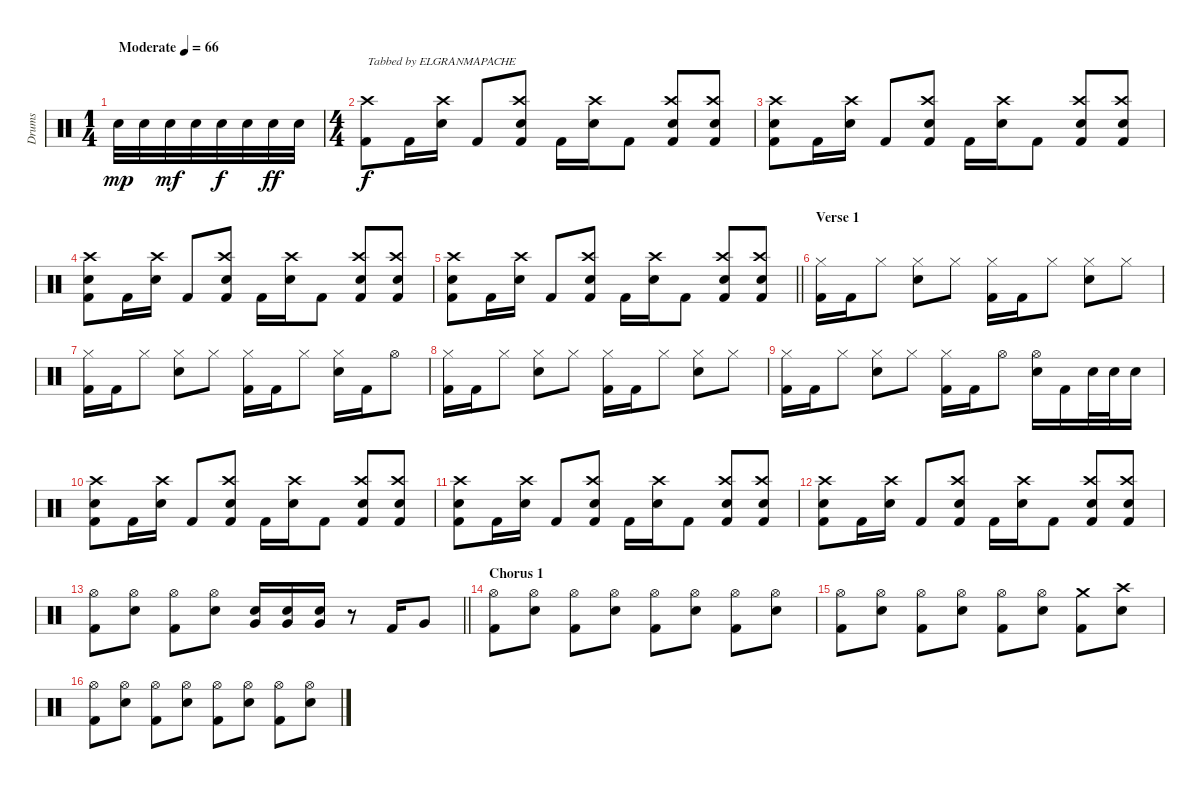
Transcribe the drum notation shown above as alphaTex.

\track ("Drums" "Drums") {instrument percussion}
\staff {score}
\articulation defaults
\ts (1 4)
\tempo (66 "Moderate")
\clef neutral
\ks c "Electric Snare (hit)".32{dy mp} "Electric Snare (hit)".32 "Electric Snare (hit)".32{dy mf} "Electric Snare (hit)".32 "Electric Snare (hit)".32{dy f} "Electric Snare (hit)".32 "Electric Snare (hit)".32{dy ff} "Electric Snare (hit)".32
|
\ts (4 4)
("Crash high (hit)" "Kick (hit) 2").8{txt "Tabbed by ELGRANMAPACHE" dy f} "Kick (hit) 2".16 ("Crash high (hit)" "Electric Snare (hit)").16 "Kick (hit) 2".8 ("Crash high (hit)" "Electric Snare (hit)" "Kick (hit) 2").8 "Kick (hit) 2".16 ("Crash high (hit)" "Electric Snare (hit)").16 "Kick (hit) 2".8 ("Crash high (hit)" "Electric Snare (hit)" "Kick (hit) 2").8 ("Crash high (hit)" "Electric Snare (hit)" "Kick (hit) 2").8 |
("Crash high (hit)" "Electric Snare (hit)" "Kick (hit) 2").8 "Kick (hit) 2".16 ("Crash high (hit)" "Electric Snare (hit)").16 "Kick (hit) 2".8 ("Crash high (hit)" "Electric Snare (hit)" "Kick (hit) 2").8 "Kick (hit) 2".16 ("Crash high (hit)" "Electric Snare (hit)").16 "Kick (hit) 2".8 ("Crash high (hit)" "Electric Snare (hit)" "Kick (hit) 2").8 ("Crash high (hit)" "Electric Snare (hit)" "Kick (hit) 2").8 |
("Crash high (hit)" "Electric Snare (hit)" "Kick (hit) 2").8 "Kick (hit) 2".16 ("Crash high (hit)" "Electric Snare (hit)").16 "Kick (hit) 2".8 ("Crash high (hit)" "Electric Snare (hit)" "Kick (hit) 2").8 "Kick (hit) 2".16 ("Crash high (hit)" "Electric Snare (hit)").16 "Kick (hit) 2".8 ("Crash high (hit)" "Electric Snare (hit)" "Kick (hit) 2").8 ("Crash high (hit)" "Electric Snare (hit)" "Kick (hit) 2").8 |
\barLineRight lightlight
("Crash high (hit)" "Electric Snare (hit)" "Kick (hit) 2").8 "Kick (hit) 2".16 ("Crash high (hit)" "Electric Snare (hit)").16 "Kick (hit) 2".8 ("Crash high (hit)" "Electric Snare (hit)" "Kick (hit) 2").8 "Kick (hit) 2".16 ("Crash high (hit)" "Electric Snare (hit)").16 "Kick (hit) 2".8 ("Crash high (hit)" "Electric Snare (hit)" "Kick (hit) 2").8 ("Crash high (hit)" "Electric Snare (hit)" "Kick (hit) 2").8 |
\section ("" "Verse 1")
("Hi-Hat (closed)" "Kick (hit) 2").16 "Kick (hit) 2".16 "Hi-Hat (closed)".8 ("Hi-Hat (closed)" "Electric Snare (hit)").8 "Hi-Hat (closed)".8 ("Hi-Hat (closed)" "Kick (hit) 2").16 "Kick (hit) 2".16 "Hi-Hat (closed)".8 ("Hi-Hat (closed)" "Electric Snare (hit)").8 "Hi-Hat (closed)".8 |
("Hi-Hat (closed)" "Kick (hit) 2").16 "Kick (hit) 2".16 "Hi-Hat (closed)".8 ("Hi-Hat (closed)" "Electric Snare (hit)").8 "Hi-Hat (closed)".8 ("Hi-Hat (closed)" "Kick (hit) 2").16 "Kick (hit) 2".16 "Hi-Hat (closed)".8 ("Hi-Hat (closed)" "Electric Snare (hit)").16 "Kick (hit) 2".16 "Hi-Hat (open)".8 |
("Hi-Hat (closed)" "Kick (hit) 2").16 "Kick (hit) 2".16 "Hi-Hat (closed)".8 ("Hi-Hat (closed)" "Electric Snare (hit)").8 "Hi-Hat (closed)".8 ("Hi-Hat (closed)" "Kick (hit) 2").16 "Kick (hit) 2".16 "Hi-Hat (closed)".8 ("Hi-Hat (closed)" "Electric Snare (hit)").8 "Hi-Hat (closed)".8 |
("Hi-Hat (closed)" "Kick (hit) 2").16 "Kick (hit) 2".16 "Hi-Hat (closed)".8 ("Hi-Hat (closed)" "Electric Snare (hit)").8 "Hi-Hat (closed)".8 ("Hi-Hat (closed)" "Kick (hit) 2").16 "Kick (hit) 2".16 "Hi-Hat (open)".8 ("Hi-Hat (open)" "Electric Snare (hit)").16 "Kick (hit) 2".16 "Electric Snare (hit)".32 "Electric Snare (hit)".32 "Electric Snare (hit)".16 |
("Crash high (hit)" "Electric Snare (hit)" "Kick (hit) 2").8 "Kick (hit) 2".16 ("Crash high (hit)" "Electric Snare (hit)").16 "Kick (hit) 2".8 ("Crash high (hit)" "Electric Snare (hit)" "Kick (hit) 2").8 "Kick (hit) 2".16 ("Crash high (hit)" "Electric Snare (hit)").16 "Kick (hit) 2".8 ("Crash high (hit)" "Electric Snare (hit)" "Kick (hit) 2").8 ("Crash high (hit)" "Electric Snare (hit)" "Kick (hit) 2").8 |
("Crash high (hit)" "Electric Snare (hit)" "Kick (hit) 2").8 "Kick (hit) 2".16 ("Crash high (hit)" "Electric Snare (hit)").16 "Kick (hit) 2".8 ("Crash high (hit)" "Electric Snare (hit)" "Kick (hit) 2").8 "Kick (hit) 2".16 ("Crash high (hit)" "Electric Snare (hit)").16 "Kick (hit) 2".8 ("Crash high (hit)" "Electric Snare (hit)" "Kick (hit) 2").8 ("Crash high (hit)" "Electric Snare (hit)" "Kick (hit) 2").8 |
("Crash high (hit)" "Electric Snare (hit)" "Kick (hit) 2").8 "Kick (hit) 2".16 ("Crash high (hit)" "Electric Snare (hit)").16 "Kick (hit) 2".8 ("Crash high (hit)" "Electric Snare (hit)" "Kick (hit) 2").8 "Kick (hit) 2".16 ("Crash high (hit)" "Electric Snare (hit)").16 "Kick (hit) 2".8 ("Crash high (hit)" "Electric Snare (hit)" "Kick (hit) 2").8 ("Crash high (hit)" "Electric Snare (hit)" "Kick (hit) 2").8 |
\barLineRight lightlight
("Hi-Hat (open)" "Kick (hit) 2").8 ("Hi-Hat (open)" "Electric Snare (hit)").8 ("Hi-Hat (open)" "Kick (hit) 2").8 ("Hi-Hat (open)" "Electric Snare (hit)").8 ("Very Low Tom (hit)" "Electric Snare (hit)").16 ("Very Low Tom (hit)" "Electric Snare (hit)").16 ("Very Low Tom (hit)" "Electric Snare (hit)").16 r.8 "Kick (hit) 2".16 "Very Low Tom (hit)".8 |
\section ("" "Chorus 1")
("Hi-Hat (open)" "Kick (hit) 2").8 ("Hi-Hat (open)" "Electric Snare (hit)").8 ("Hi-Hat (open)" "Kick (hit) 2").8 ("Hi-Hat (open)" "Electric Snare (hit)").8 ("Hi-Hat (open)" "Kick (hit) 2").8 ("Hi-Hat (open)" "Electric Snare (hit)").8 ("Hi-Hat (open)" "Kick (hit) 2").8 ("Hi-Hat (open)" "Electric Snare (hit)").8 |
("Hi-Hat (open)" "Kick (hit) 2").8 ("Hi-Hat (open)" "Electric Snare (hit)").8 ("Hi-Hat (open)" "Kick (hit) 2").8 ("Hi-Hat (open)" "Electric Snare (hit)").8 ("Hi-Hat (open)" "Kick (hit) 2").8 ("Hi-Hat (open)" "Electric Snare (hit)").8 ("Crash medium (hit)" "Kick (hit) 2").8 ("Crash high (hit)" "Electric Snare (hit)").8 |
("Hi-Hat (open)" "Kick (hit) 2").8 ("Hi-Hat (open)" "Electric Snare (hit)").8 ("Hi-Hat (open)" "Kick (hit) 2").8 ("Hi-Hat (open)" "Electric Snare (hit)").8 ("Hi-Hat (open)" "Kick (hit) 2").8 ("Hi-Hat (open)" "Electric Snare (hit)").8 ("Hi-Hat (open)" "Kick (hit) 2").8 ("Hi-Hat (open)" "Electric Snare (hit)").8
